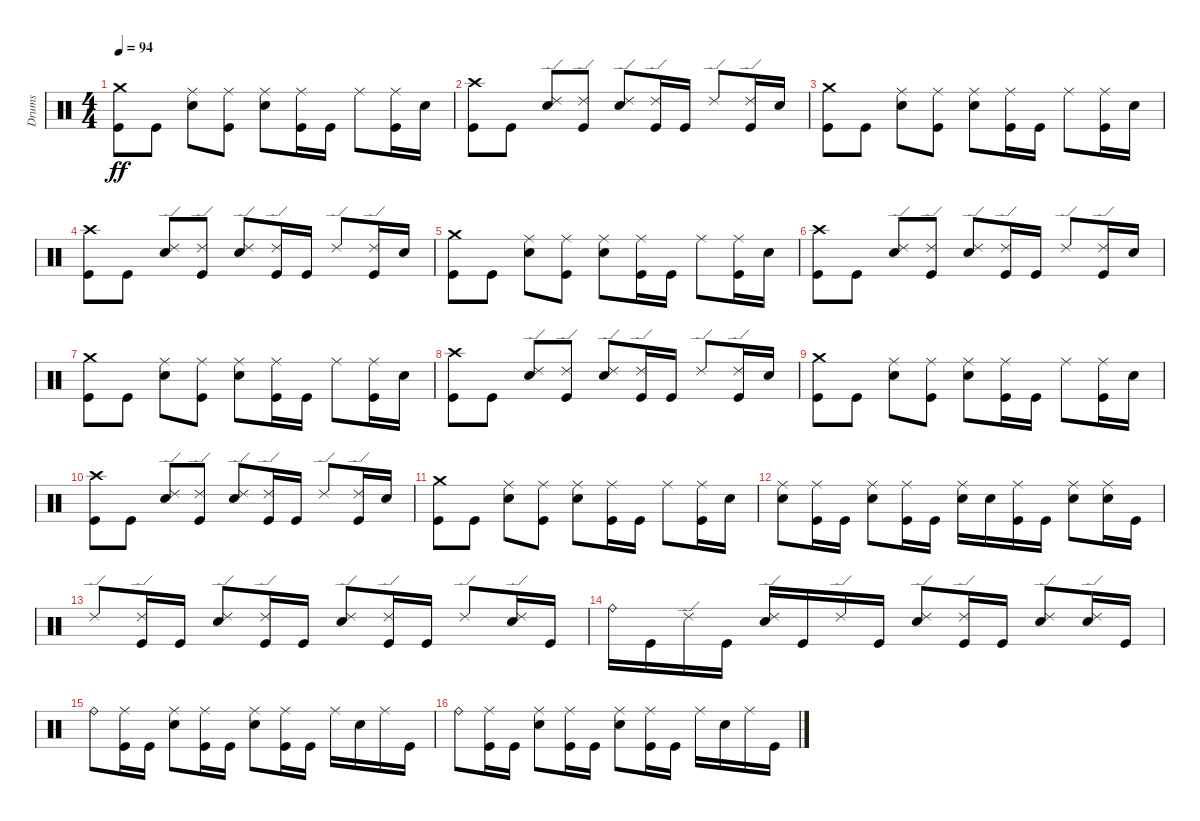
\track ("Drums" "Drums") {instrument percussion}
\staff {score}
\articulation defaults
\ts (4 4)
\tempo 94
\clef neutral
\ks c
("Crash medium (hit)" "Kick (hit)").8{dy ff} "Kick (hit)".8 ("Ride (middle)" "Electric Snare (hit)").8 ("Ride (middle)" "Kick (hit)").8 ("Ride (middle)" "Electric Snare (hit)").8 ("Ride (middle)" "Kick (hit)").16 "Kick (hit)".16 "Ride (middle)".8 ("Ride (middle)" "Kick (hit)").16 "Electric Snare (hit)".16 |
("Crash high (hit)" "Kick (hit)").8 "Kick (hit)".8 ("Ride (edge) 2" "Electric Snare (hit)").8 ("Ride (edge) 2" "Kick (hit)").8 ("Ride (edge) 2" "Electric Snare (hit)").8 ("Ride (edge) 2" "Kick (hit)").16 "Kick (hit)".16 "Ride (edge) 2".8 ("Ride (edge) 2" "Kick (hit)").16 "Electric Snare (hit)".16 |
("Crash medium (hit)" "Kick (hit)").8 "Kick (hit)".8 ("Ride (middle)" "Electric Snare (hit)").8 ("Ride (middle)" "Kick (hit)").8 ("Ride (middle)" "Electric Snare (hit)").8 ("Ride (middle)" "Kick (hit)").16 "Kick (hit)".16 "Ride (middle)".8 ("Ride (middle)" "Kick (hit)").16 "Electric Snare (hit)".16 |
("Crash high (hit)" "Kick (hit)").8 "Kick (hit)".8 ("Ride (edge) 2" "Electric Snare (hit)").8 ("Ride (edge) 2" "Kick (hit)").8 ("Ride (edge) 2" "Electric Snare (hit)").8 ("Ride (edge) 2" "Kick (hit)").16 "Kick (hit)".16 "Ride (edge) 2".8 ("Ride (edge) 2" "Kick (hit)").16 "Electric Snare (hit)".16 |
("Crash medium (hit)" "Kick (hit)").8 "Kick (hit)".8 ("Ride (middle)" "Electric Snare (hit)").8 ("Ride (middle)" "Kick (hit)").8 ("Ride (middle)" "Electric Snare (hit)").8 ("Ride (middle)" "Kick (hit)").16 "Kick (hit)".16 "Ride (middle)".8 ("Ride (middle)" "Kick (hit)").16 "Electric Snare (hit)".16 |
("Crash high (hit)" "Kick (hit)").8 "Kick (hit)".8 ("Ride (edge) 2" "Electric Snare (hit)").8 ("Ride (edge) 2" "Kick (hit)").8 ("Ride (edge) 2" "Electric Snare (hit)").8 ("Ride (edge) 2" "Kick (hit)").16 "Kick (hit)".16 "Ride (edge) 2".8 ("Ride (edge) 2" "Kick (hit)").16 "Electric Snare (hit)".16 |
("Crash medium (hit)" "Kick (hit)").8 "Kick (hit)".8 ("Ride (middle)" "Electric Snare (hit)").8 ("Ride (middle)" "Kick (hit)").8 ("Ride (middle)" "Electric Snare (hit)").8 ("Ride (middle)" "Kick (hit)").16 "Kick (hit)".16 "Ride (middle)".8 ("Ride (middle)" "Kick (hit)").16 "Electric Snare (hit)".16 |
("Crash high (hit)" "Kick (hit)").8 "Kick (hit)".8 ("Ride (edge) 2" "Electric Snare (hit)").8 ("Ride (edge) 2" "Kick (hit)").8 ("Ride (edge) 2" "Electric Snare (hit)").8 ("Ride (edge) 2" "Kick (hit)").16 "Kick (hit)".16 "Ride (edge) 2".8 ("Ride (edge) 2" "Kick (hit)").16 "Electric Snare (hit)".16 |
("Crash medium (hit)" "Kick (hit)").8 "Kick (hit)".8 ("Ride (middle)" "Electric Snare (hit)").8 ("Ride (middle)" "Kick (hit)").8 ("Ride (middle)" "Electric Snare (hit)").8 ("Ride (middle)" "Kick (hit)").16 "Kick (hit)".16 "Ride (middle)".8 ("Ride (middle)" "Kick (hit)").16 "Electric Snare (hit)".16 |
("Crash high (hit)" "Kick (hit)").8 "Kick (hit)".8 ("Ride (edge) 2" "Electric Snare (hit)").8 ("Ride (edge) 2" "Kick (hit)").8 ("Ride (edge) 2" "Electric Snare (hit)").8 ("Ride (edge) 2" "Kick (hit)").16 "Kick (hit)".16 "Ride (edge) 2".8 ("Ride (edge) 2" "Kick (hit)").16 "Electric Snare (hit)".16 |
("Crash medium (hit)" "Kick (hit)").8 "Kick (hit)".8 ("Ride (middle)" "Electric Snare (hit)").8 ("Ride (middle)" "Kick (hit)").8 ("Ride (middle)" "Electric Snare (hit)").8 ("Ride (middle)" "Kick (hit)").16 "Kick (hit)".16 "Ride (middle)".8 ("Ride (middle)" "Kick (hit)").16 "Electric Snare (hit)".16 |
("Ride (middle)" "Electric Snare (hit)").8 ("Ride (middle)" "Kick (hit)").16 "Kick (hit)".16 ("Ride (middle)" "Electric Snare (hit)").8 ("Ride (middle)" "Kick (hit)").16 "Kick (hit)".16 ("Ride (middle)" "Electric Snare (hit)").16 "Electric Snare (hit)".16 ("Ride (middle)" "Kick (hit)").16 "Kick (hit)".16 ("Ride (middle)" "Electric Snare (hit)").8 ("Ride (middle)" "Electric Snare (hit)").16 "Kick (hit)".16 |
"Ride (edge) 2".8 ("Ride (edge) 2" "Kick (hit)").16 "Kick (hit)".16 ("Ride (edge) 2" "Electric Snare (hit)").8 ("Ride (edge) 2" "Kick (hit)").16 "Kick (hit)".16 ("Ride (edge) 2" "Electric Snare (hit)").8 ("Ride (edge) 2" "Kick (hit)").16 "Kick (hit)".16 "Ride (edge) 2".8 ("Ride (edge) 2" "Electric Snare (hit)").16 "Kick (hit)".16 |
"Ride (bell)".16 "Kick (hit)".16 "Ride (edge) 2".16 "Kick (hit)".16 ("Ride (edge) 2" "Electric Snare (hit)").16 "Kick (hit)".16 "Ride (edge) 2".16 "Kick (hit)".16 ("Ride (edge) 2" "Electric Snare (hit)").8 ("Ride (edge) 2" "Kick (hit)").16 "Kick (hit)".16 ("Ride (edge) 2" "Electric Snare (hit)").8 ("Ride (edge) 2" "Electric Snare (hit)").16 "Kick (hit)".16 |
"Ride (bell)".8 ("Ride (middle)" "Kick (hit)").16 "Kick (hit)".16 ("Ride (middle)" "Electric Snare (hit)").8 ("Ride (middle)" "Kick (hit)").16 "Kick (hit)".16 ("Ride (middle)" "Electric Snare (hit)").8 ("Ride (middle)" "Kick (hit)").16 "Kick (hit)".16 "Ride (middle)".16 "Electric Snare (hit)".16 "Ride (middle)".16 "Kick (hit)".16 |
"Ride (bell)".8 ("Ride (middle)" "Kick (hit)").16 "Kick (hit)".16 ("Ride (middle)" "Electric Snare (hit)").8 ("Ride (middle)" "Kick (hit)").16 "Kick (hit)".16 ("Ride (middle)" "Electric Snare (hit)").8 ("Ride (middle)" "Kick (hit)").16 "Kick (hit)".16 "Ride (middle)".16 "Electric Snare (hit)".16 "Ride (middle)".16 "Kick (hit)".16
